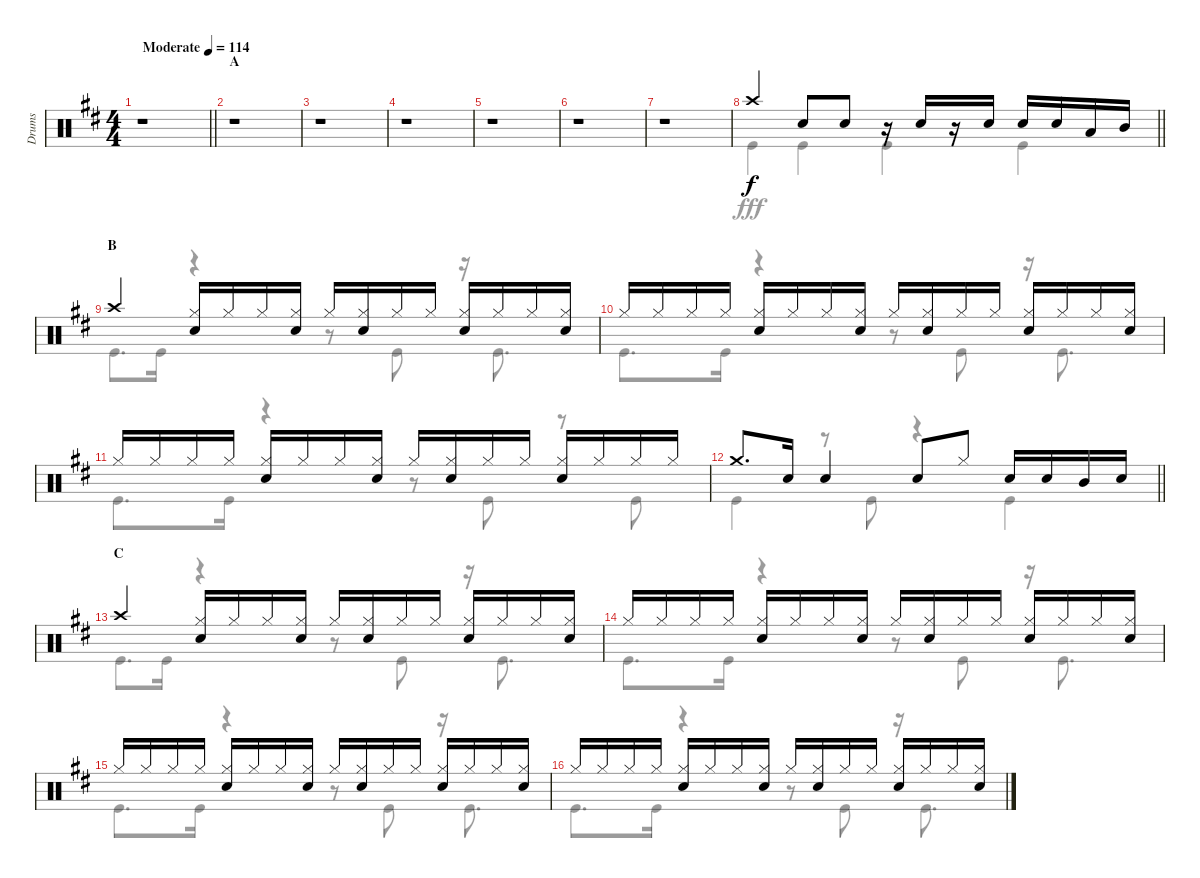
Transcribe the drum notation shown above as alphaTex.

\track ("Drums" "Drums") {instrument percussion}
\staff {score}
\articulation defaults
\voice
\ts (4 4)
\tempo (114 "Moderate")
\clef neutral
\barLineRight lightlight
\ks d
r.1{dy f} |
\section ("" "A")
r.1 |
r.1 |
r.1 |
r.1 |
r.1 |
r.1 |
\barLineRight lightlight "Crash high (hit)".4 "Snare (hit) 2".8 "Snare (hit) 2".8
r.16 "Snare (hit) 2".16 r.16 "Snare (hit) 2".16 "Snare (hit) 2".16 "Snare (hit) 2".16 "Low Tom (hit)".16 "Mid Tom (hit)".16 |
\section ("" "B")
"Crash high (hit)".4 ("Hi-Hat (closed)" "Snare (hit) 2").16 "Hi-Hat (closed)".16 "Hi-Hat (closed)".16 ("Hi-Hat (closed)" "Snare (hit) 2").16 "Hi-Hat (closed)".16 ("Hi-Hat (closed)" "Snare (hit) 2").16 "Hi-Hat (closed)".16 "Hi-Hat (closed)".16 ("Hi-Hat (closed)" "Snare (hit) 2").16 "Hi-Hat (closed)".16 "Hi-Hat (closed)".16 ("Hi-Hat (closed)" "Snare (hit) 2").16 |
"Hi-Hat (closed)".16 "Hi-Hat (closed)".16 "Hi-Hat (closed)".16 "Hi-Hat (closed)".16 ("Hi-Hat (closed)" "Snare (hit) 2").16 "Hi-Hat (closed)".16 "Hi-Hat (closed)".16 ("Hi-Hat (closed)" "Snare (hit) 2").16 "Hi-Hat (closed)".16 ("Hi-Hat (closed)" "Snare (hit) 2").16 "Hi-Hat (closed)".16 "Hi-Hat (closed)".16 ("Hi-Hat (closed)" "Snare (hit) 2").16 "Hi-Hat (closed)".16 "Hi-Hat (closed)".16 ("Hi-Hat (closed)" "Snare (hit) 2").16 |
"Hi-Hat (closed)".16 "Hi-Hat (closed)".16 "Hi-Hat (closed)".16 "Hi-Hat (closed)".16 ("Hi-Hat (closed)" "Snare (hit) 2").16 "Hi-Hat (closed)".16 "Hi-Hat (closed)".16 ("Hi-Hat (closed)" "Snare (hit) 2").16 "Hi-Hat (closed)".16 ("Hi-Hat (closed)" "Snare (hit) 2").16 "Hi-Hat (closed)".16 "Hi-Hat (closed)".16 ("Hi-Hat (closed)" "Snare (hit) 2").16 "Hi-Hat (closed)".16 "Hi-Hat (closed)".16 "Hi-Hat (closed)".16 |
\barLineRight lightlight "Crash medium (hit)".8{d} "Snare (hit) 2".16 "Snare (hit) 2".4 "Snare (hit) 2".8 "Hi-Hat (closed)".8 "Snare (hit) 2".16 "Snare (hit) 2".16 "Mid Tom (hit)".16 "Snare (hit) 2".16
|
\section ("" "C")
"Crash high (hit)".4 ("Hi-Hat (closed)" "Snare (hit) 2").16 "Hi-Hat (closed)".16 "Hi-Hat (closed)".16 ("Hi-Hat (closed)" "Snare (hit) 2").16 "Hi-Hat (closed)".16 ("Hi-Hat (closed)" "Snare (hit) 2").16 "Hi-Hat (closed)".16 "Hi-Hat (closed)".16 ("Hi-Hat (closed)" "Snare (hit) 2").16 "Hi-Hat (closed)".16 "Hi-Hat (closed)".16 ("Hi-Hat (closed)" "Snare (hit) 2").16 |
"Hi-Hat (closed)".16 "Hi-Hat (closed)".16 "Hi-Hat (closed)".16 "Hi-Hat (closed)".16 ("Hi-Hat (closed)" "Snare (hit) 2").16 "Hi-Hat (closed)".16 "Hi-Hat (closed)".16 ("Hi-Hat (closed)" "Snare (hit) 2").16 "Hi-Hat (closed)".16 ("Hi-Hat (closed)" "Snare (hit) 2").16 "Hi-Hat (closed)".16 "Hi-Hat (closed)".16 ("Hi-Hat (closed)" "Snare (hit) 2").16 "Hi-Hat (closed)".16 "Hi-Hat (closed)".16 ("Hi-Hat (closed)" "Snare (hit) 2").16 |
"Hi-Hat (closed)".16 "Hi-Hat (closed)".16 "Hi-Hat (closed)".16 "Hi-Hat (closed)".16 ("Hi-Hat (closed)" "Snare (hit) 2").16 "Hi-Hat (closed)".16 "Hi-Hat (closed)".16 ("Hi-Hat (closed)" "Snare (hit) 2").16 "Hi-Hat (closed)".16 ("Hi-Hat (closed)" "Snare (hit) 2").16 "Hi-Hat (closed)".16 "Hi-Hat (closed)".16 ("Hi-Hat (closed)" "Snare (hit) 2").16 "Hi-Hat (closed)".16 "Hi-Hat (closed)".16 ("Hi-Hat (closed)" "Snare (hit) 2").16 |
"Hi-Hat (closed)".16 "Hi-Hat (closed)".16 "Hi-Hat (closed)".16 "Hi-Hat (closed)".16 ("Hi-Hat (closed)" "Snare (hit) 2").16 "Hi-Hat (closed)".16 "Hi-Hat (closed)".16 ("Hi-Hat (closed)" "Snare (hit) 2").16 "Hi-Hat (closed)".16 ("Hi-Hat (closed)" "Snare (hit) 2").16 "Hi-Hat (closed)".16 "Hi-Hat (closed)".16 ("Hi-Hat (closed)" "Snare (hit) 2").16 "Hi-Hat (closed)".16 "Hi-Hat (closed)".16 ("Hi-Hat (closed)" "Snare (hit) 2").16
\voice
\clef neutral
\ottava regular
\simile none
\barLineRight lightlight
\ks d
r.1{dy fff} |
r.1 |
r.1 |
r.1 |
r.1 |
r.1 |
r.1 |
\barLineRight lightlight "Kick (hit)".4 "Kick (hit)".4 "Kick (hit)".4 "Kick (hit)".4
|
"Kick (hit)".8{d} "Kick (hit)".16 r.4 r.8 "Kick (hit)".8 r.16 "Kick (hit)".8{d} |
"Kick (hit)".8{d} "Kick (hit)".16 r.4 r.8 "Kick (hit)".8 r.16 "Kick (hit)".8{d} |
"Kick (hit)".8{d} "Kick (hit)".16 r.4 r.8 "Kick (hit)".8 r.8 "Kick (hit)".8 |
\barLineRight lightlight "Kick (hit)".4
r.8 "Kick (hit)".8 r.4 "Kick (hit)".4 |
"Kick (hit)".8{d} "Kick (hit)".16 r.4 r.8 "Kick (hit)".8 r.16 "Kick (hit)".8{d} |
"Kick (hit)".8{d} "Kick (hit)".16 r.4 r.8 "Kick (hit)".8 r.16 "Kick (hit)".8{d} |
"Kick (hit)".8{d} "Kick (hit)".16 r.4 r.8 "Kick (hit)".8 r.16 "Kick (hit)".8{d} |
"Kick (hit)".8{d} "Kick (hit)".16 r.4 r.8 "Kick (hit)".8 r.16 "Kick (hit)".8{d}
